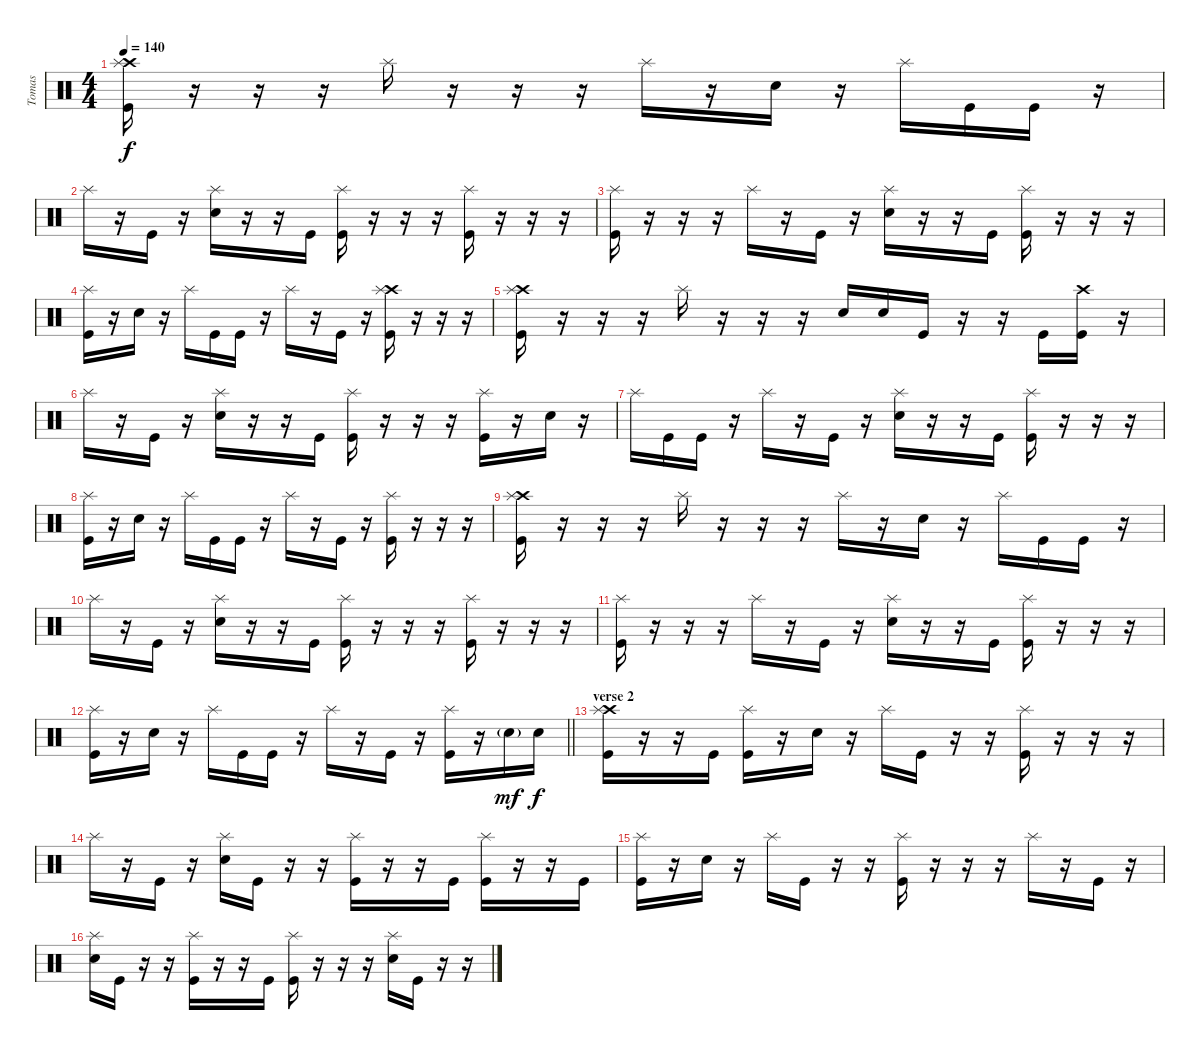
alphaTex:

\track ("Tomas" "Tomas") {instrument percussion}
\staff {score}
\articulation defaults
\ts (4 4)
\tempo 140
\clef neutral
\ks c
("Crash high (hit)" "Splash (hit)" "Kick (hit)").16{dy f} r.16 r.16 r.16 "Splash (hit)".16 r.16 r.16 r.16 "Splash (hit)".16 r.16 "Electric Snare (hit)".16 r.16 "Splash (hit)".16 "Kick (hit)".16 "Kick (hit)".16 r.16 |
"Splash (hit)".16 r.16 "Kick (hit)".16 r.16 ("Splash (hit)" "Electric Snare (hit)").16 r.16 r.16 "Kick (hit)".16 ("Splash (hit)" "Kick (hit)").16 r.16 r.16 r.16 ("Splash (hit)" "Kick (hit)").16 r.16 r.16 r.16 |
("Splash (hit)" "Kick (hit)").16 r.16 r.16 r.16 "Splash (hit)".16 r.16 "Kick (hit)".16 r.16 ("Splash (hit)" "Electric Snare (hit)").16 r.16 r.16 "Kick (hit)".16 ("Splash (hit)" "Kick (hit)").16 r.16 r.16 r.16 |
("Splash (hit)" "Kick (hit)").16 r.16 "Electric Snare (hit)".16 r.16 "Splash (hit)".16 "Kick (hit)".16 "Kick (hit)".16 r.16 "Splash (hit)".16 r.16 "Kick (hit)".16 r.16 ("Crash high (hit)" "Splash (hit)" "Kick (hit)").16 r.16 r.16 r.16 |
("Crash high (hit)" "Splash (hit)" "Kick (hit)").16 r.16 r.16 r.16 "Splash (hit)".16 r.16 r.16 r.16 "Electric Snare (hit)".16 "Electric Snare (hit)".16 "Kick (hit)".16 r.16 r.16 "Kick (hit)".16 ("Crash high (hit)" "Kick (hit)").16 r.16 |
"Splash (hit)".16 r.16 "Kick (hit)".16 r.16 ("Splash (hit)" "Electric Snare (hit)").16 r.16 r.16 "Kick (hit)".16 ("Splash (hit)" "Kick (hit)").16 r.16 r.16 r.16 ("Splash (hit)" "Kick (hit)").16 r.16 "Electric Snare (hit)".16 r.16 |
"Splash (hit)".16 "Kick (hit)".16 "Kick (hit)".16 r.16 "Splash (hit)".16 r.16 "Kick (hit)".16 r.16 ("Splash (hit)" "Electric Snare (hit)").16 r.16 r.16 "Kick (hit)".16 ("Splash (hit)" "Kick (hit)").16 r.16 r.16 r.16 |
("Splash (hit)" "Kick (hit)").16 r.16 "Electric Snare (hit)".16 r.16 "Splash (hit)".16 "Kick (hit)".16 "Kick (hit)".16 r.16 "Splash (hit)".16 r.16 "Kick (hit)".16 r.16 ("Splash (hit)" "Kick (hit)").16 r.16 r.16 r.16 |
("Crash high (hit)" "Splash (hit)" "Kick (hit)").16 r.16 r.16 r.16 "Splash (hit)".16 r.16 r.16 r.16 "Splash (hit)".16 r.16 "Electric Snare (hit)".16 r.16 "Splash (hit)".16 "Kick (hit)".16 "Kick (hit)".16 r.16 |
"Splash (hit)".16 r.16 "Kick (hit)".16 r.16 ("Splash (hit)" "Electric Snare (hit)").16 r.16 r.16 "Kick (hit)".16 ("Splash (hit)" "Kick (hit)").16 r.16 r.16 r.16 ("Splash (hit)" "Kick (hit)").16 r.16 r.16 r.16 |
("Splash (hit)" "Kick (hit)").16 r.16 r.16 r.16 "Splash (hit)".16 r.16 "Kick (hit)".16 r.16 ("Splash (hit)" "Electric Snare (hit)").16 r.16 r.16 "Kick (hit)".16 ("Splash (hit)" "Kick (hit)").16 r.16 r.16 r.16 |
\barLineRight lightlight
("Splash (hit)" "Kick (hit)").16 r.16 "Electric Snare (hit)".16 r.16 "Splash (hit)".16 "Kick (hit)".16 "Kick (hit)".16 r.16 "Splash (hit)".16 r.16 "Kick (hit)".16 r.16 ("Splash (hit)" "Kick (hit)").16 r.16 "Electric Snare (hit)"{g}.16{dy mf} "Electric Snare (hit)".16{dy f} |
\section ("" "verse 2")
("Crash high (hit)" "Splash (hit)" "Kick (hit)").16 r.16 r.16 "Kick (hit)".16 ("Splash (hit)" "Kick (hit)").16 r.16 "Electric Snare (hit)".16 r.16 "Splash (hit)".16 "Kick (hit)".16 r.16 r.16 ("Splash (hit)" "Kick (hit)").16 r.16 r.16 r.16 |
"Splash (hit)".16 r.16 "Kick (hit)".16 r.16 ("Splash (hit)" "Electric Snare (hit)").16 "Kick (hit)".16 r.16 r.16 ("Splash (hit)" "Kick (hit)").16 r.16 r.16 "Kick (hit)".16 ("Splash (hit)" "Kick (hit)").16 r.16 r.16 "Kick (hit)".16 |
("Splash (hit)" "Kick (hit)").16 r.16 "Electric Snare (hit)".16 r.16 "Splash (hit)".16 "Kick (hit)".16 r.16 r.16 ("Splash (hit)" "Kick (hit)").16 r.16 r.16 r.16 "Splash (hit)".16 r.16 "Kick (hit)".16 r.16 |
("Splash (hit)" "Electric Snare (hit)").16 "Kick (hit)".16 r.16 r.16 ("Splash (hit)" "Kick (hit)").16 r.16 r.16 "Kick (hit)".16 ("Splash (hit)" "Kick (hit)").16 r.16 r.16 r.16 ("Splash (hit)" "Electric Snare (hit)").16 "Kick (hit)".16 r.16 r.16
